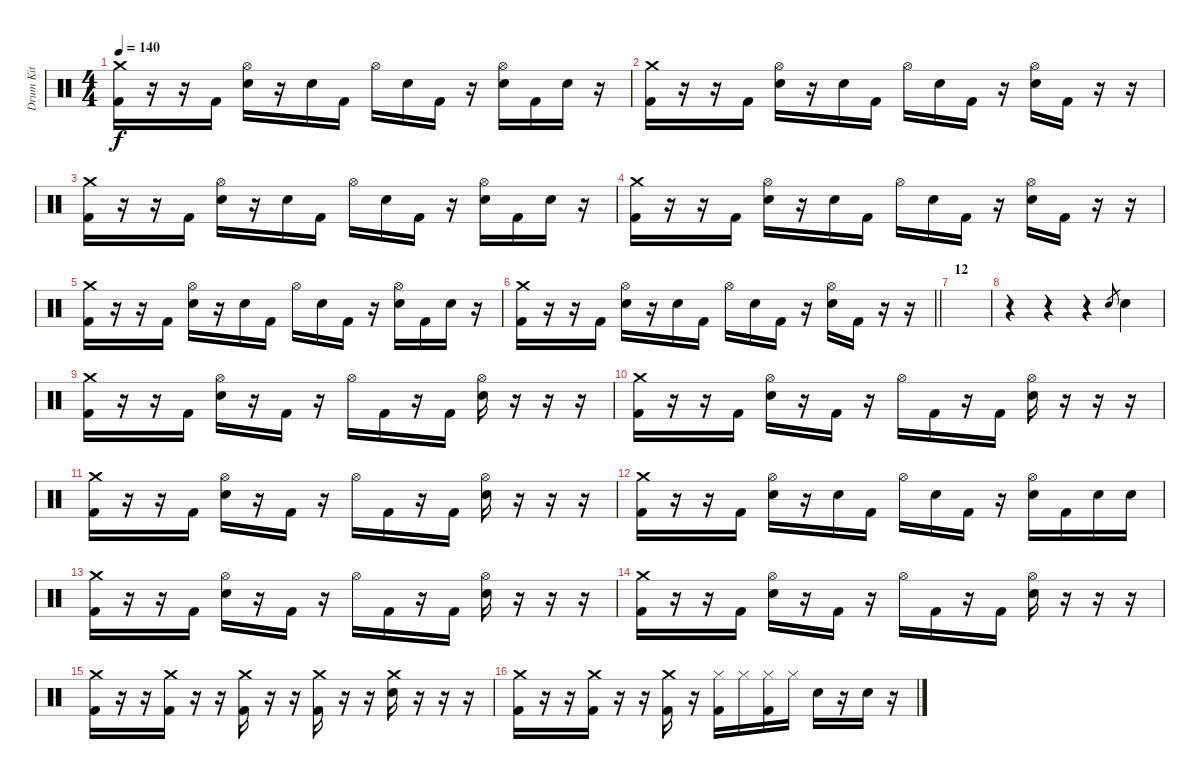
\track ("Drum Kit" "Drum Kit") {instrument percussion}
\staff {score}
\articulation defaults
\ts (4 4)
\tempo 140
\clef neutral
\ks c
("Crash medium (hit)" "Kick (hit) 2").16{dy f} r.16 r.16 "Kick (hit) 2".16 ("Hi-Hat (open)" "Electric Snare (hit)").16 r.16 "Electric Snare (hit)".16 "Kick (hit) 2".16 "Hi-Hat (open)".16 "Electric Snare (hit)".16 "Kick (hit) 2".16 r.16 ("Hi-Hat (open)" "Electric Snare (hit)").16 "Kick (hit) 2".16 "Electric Snare (hit)".16 r.16 |
("Crash medium (hit)" "Kick (hit) 2").16 r.16 r.16 "Kick (hit) 2".16 ("Hi-Hat (open)" "Electric Snare (hit)").16 r.16 "Electric Snare (hit)".16 "Kick (hit) 2".16 "Hi-Hat (open)".16 "Electric Snare (hit)".16 "Kick (hit) 2".16 r.16 ("Hi-Hat (open)" "Electric Snare (hit)").16 "Kick (hit) 2".16 r.16 r.16 |
("Crash medium (hit)" "Kick (hit) 2").16 r.16 r.16 "Kick (hit) 2".16 ("Hi-Hat (open)" "Electric Snare (hit)").16 r.16 "Electric Snare (hit)".16 "Kick (hit) 2".16 "Hi-Hat (open)".16 "Electric Snare (hit)".16 "Kick (hit) 2".16 r.16 ("Hi-Hat (open)" "Electric Snare (hit)").16 "Kick (hit) 2".16 "Electric Snare (hit)".16 r.16 |
("Crash medium (hit)" "Kick (hit) 2").16 r.16 r.16 "Kick (hit) 2".16 ("Hi-Hat (open)" "Electric Snare (hit)").16 r.16 "Electric Snare (hit)".16 "Kick (hit) 2".16 "Hi-Hat (open)".16 "Electric Snare (hit)".16 "Kick (hit) 2".16 r.16 ("Hi-Hat (open)" "Electric Snare (hit)").16 "Kick (hit) 2".16 r.16 r.16 |
("Crash medium (hit)" "Kick (hit) 2").16 r.16 r.16 "Kick (hit) 2".16 ("Hi-Hat (open)" "Electric Snare (hit)").16 r.16 "Electric Snare (hit)".16 "Kick (hit) 2".16 "Hi-Hat (open)".16 "Electric Snare (hit)".16 "Kick (hit) 2".16 r.16 ("Hi-Hat (open)" "Electric Snare (hit)").16 "Kick (hit) 2".16 "Electric Snare (hit)".16 r.16 |
\barLineRight lightlight
("Crash medium (hit)" "Kick (hit) 2").16 r.16 r.16 "Kick (hit) 2".16 ("Hi-Hat (open)" "Electric Snare (hit)").16 r.16 "Electric Snare (hit)".16 "Kick (hit) 2".16 "Hi-Hat (open)".16 "Electric Snare (hit)".16 "Kick (hit) 2".16 r.16 ("Hi-Hat (open)" "Electric Snare (hit)").16 "Kick (hit) 2".16 r.16 r.16 |
\section ("" "12")
|
r.4 r.4 r.4 "Electric Snare (hit)".8{gr} "Electric Snare (hit)".4 |
("Crash medium (hit)" "Kick (hit) 2").16 r.16 r.16 "Kick (hit) 2".16 ("Hi-Hat (open)" "Electric Snare (hit)").16 r.16 "Kick (hit) 2".16 r.16 "Hi-Hat (open)".16 "Kick (hit) 2".16 r.16 "Kick (hit) 2".16 ("Hi-Hat (open)" "Electric Snare (hit)").16 r.16 r.16 r.16 |
("Crash medium (hit)" "Kick (hit) 2").16 r.16 r.16 "Kick (hit) 2".16 ("Hi-Hat (open)" "Electric Snare (hit)").16 r.16 "Kick (hit) 2".16 r.16 "Hi-Hat (open)".16 "Kick (hit) 2".16 r.16 "Kick (hit) 2".16 ("Hi-Hat (open)" "Electric Snare (hit)").16 r.16 r.16 r.16 |
("Crash medium (hit)" "Kick (hit) 2").16 r.16 r.16 "Kick (hit) 2".16 ("Hi-Hat (open)" "Electric Snare (hit)").16 r.16 "Kick (hit) 2".16 r.16 "Hi-Hat (open)".16 "Kick (hit) 2".16 r.16 "Kick (hit) 2".16 ("Hi-Hat (open)" "Electric Snare (hit)").16 r.16 r.16 r.16 |
("Crash medium (hit)" "Kick (hit) 2").16 r.16 r.16 "Kick (hit) 2".16 ("Hi-Hat (open)" "Electric Snare (hit)").16 r.16 "Electric Snare (hit)".16 "Kick (hit) 2".16 "Hi-Hat (open)".16 "Electric Snare (hit)".16 "Kick (hit) 2".16 r.16 ("Hi-Hat (open)" "Electric Snare (hit)").16 "Kick (hit) 2".16 "Electric Snare (hit)".16 "Electric Snare (hit)".16 |
("Crash medium (hit)" "Kick (hit) 2").16 r.16 r.16 "Kick (hit) 2".16 ("Hi-Hat (open)" "Electric Snare (hit)").16 r.16 "Kick (hit) 2".16 r.16 "Hi-Hat (open)".16 "Kick (hit) 2".16 r.16 "Kick (hit) 2".16 ("Hi-Hat (open)" "Electric Snare (hit)").16 r.16 r.16 r.16 |
("Crash medium (hit)" "Kick (hit) 2").16 r.16 r.16 "Kick (hit) 2".16 ("Hi-Hat (open)" "Electric Snare (hit)").16 r.16 "Kick (hit) 2".16 r.16 "Hi-Hat (open)".16 "Kick (hit) 2".16 r.16 "Kick (hit) 2".16 ("Hi-Hat (open)" "Electric Snare (hit)").16 r.16 r.16 r.16 |
("Crash medium (hit)" "Kick (hit) 2").16 r.16 r.16 ("Crash medium (hit)" "Kick (hit) 2").16 r.16 r.16 ("Crash medium (hit)" "Kick (hit) 2").16 r.16 r.16 ("Crash medium (hit)" "Kick (hit) 2").16 r.16 r.16 ("Crash medium (hit)" "Electric Snare (hit)").16 r.16 r.16 r.16 |
("Crash medium (hit)" "Kick (hit) 2").16 r.16 r.16 ("Crash medium (hit)" "Kick (hit) 2").16 r.16 r.16 ("Crash medium (hit)" "Kick (hit) 2").16 r.16 ("Hi-Hat (closed)" "Kick (hit) 2").16 "Hi-Hat (closed)".16 ("Hi-Hat (closed)" "Kick (hit) 2").16 "Hi-Hat (closed)".16 "Electric Snare (hit)".16 r.16 "Electric Snare (hit)".16 r.16
